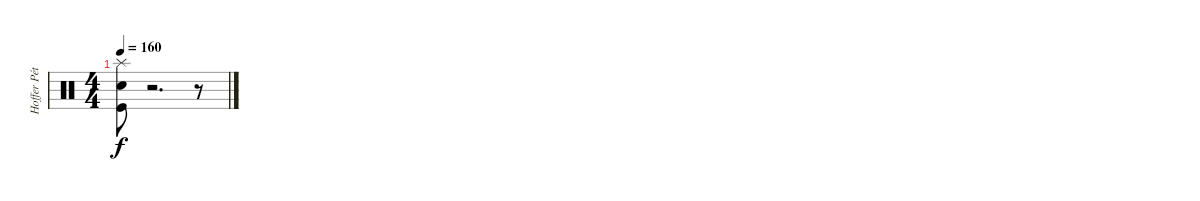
\track ("Hoffer Péter" "Hoffer Pét") {instrument percussion}
\staff {score}
\articulation defaults
\ts (4 4)
\tempo 160
\clef neutral
\ks c
("Splash (hit)" "Electric Snare (hit)" "Kick (hit)").8{dy f} r.2{d} r.8
